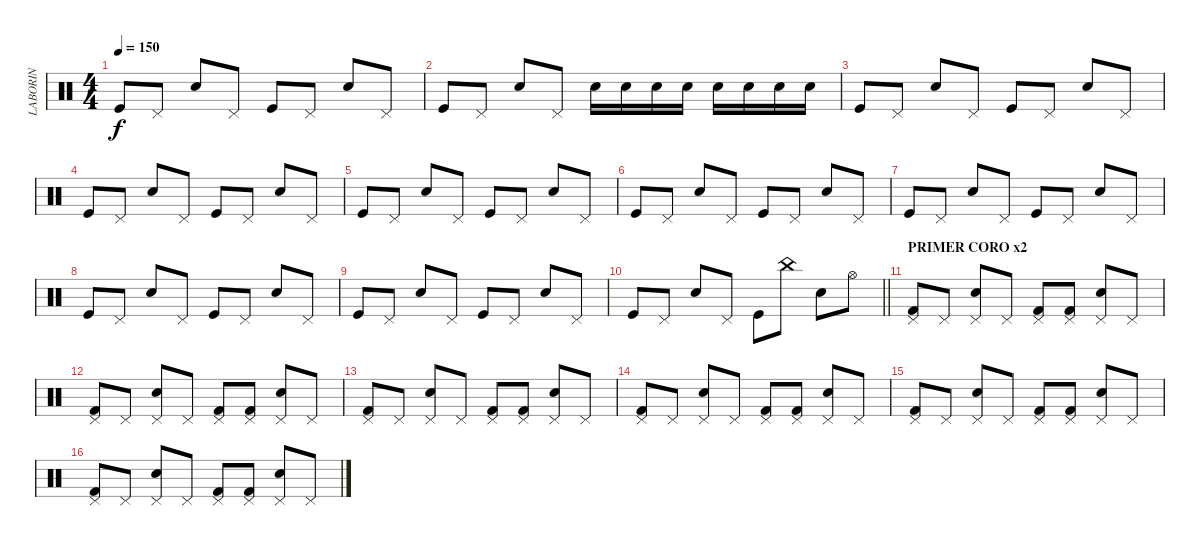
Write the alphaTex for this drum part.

\track ("LABORIN" "LABORIN") {instrument percussion}
\staff {score}
\articulation defaults
\ts (4 4)
\tempo 150
\clef neutral
\ks c "Kick (hit)".8{dy f} "Pedal Hi-Hat (hit)".8 "Snare (hit) 2".8 "Pedal Hi-Hat (hit)".8 "Kick (hit)".8 "Pedal Hi-Hat (hit)".8 "Snare (hit) 2".8 "Pedal Hi-Hat (hit)".8
|
"Kick (hit)".8 "Pedal Hi-Hat (hit)".8 "Snare (hit) 2".8 "Pedal Hi-Hat (hit)".8 "Snare (hit) 2".16 "Snare (hit) 2".16 "Snare (hit) 2".16 "Snare (hit) 2".16 "Snare (hit) 2".16 "Snare (hit) 2".16 "Snare (hit) 2".16 "Snare (hit) 2".16 |
"Kick (hit)".8 "Pedal Hi-Hat (hit)".8 "Snare (hit) 2".8 "Pedal Hi-Hat (hit)".8 "Kick (hit)".8 "Pedal Hi-Hat (hit)".8 "Snare (hit) 2".8 "Pedal Hi-Hat (hit)".8 |
"Kick (hit)".8 "Pedal Hi-Hat (hit)".8 "Snare (hit) 2".8 "Pedal Hi-Hat (hit)".8 "Kick (hit)".8 "Pedal Hi-Hat (hit)".8 "Snare (hit) 2".8 "Pedal Hi-Hat (hit)".8 |
"Kick (hit)".8 "Pedal Hi-Hat (hit)".8 "Snare (hit) 2".8 "Pedal Hi-Hat (hit)".8 "Kick (hit)".8 "Pedal Hi-Hat (hit)".8 "Snare (hit) 2".8 "Pedal Hi-Hat (hit)".8 |
"Kick (hit)".8 "Pedal Hi-Hat (hit)".8 "Snare (hit) 2".8 "Pedal Hi-Hat (hit)".8 "Kick (hit)".8 "Pedal Hi-Hat (hit)".8 "Snare (hit) 2".8 "Pedal Hi-Hat (hit)".8 |
"Kick (hit)".8 "Pedal Hi-Hat (hit)".8 "Snare (hit) 2".8 "Pedal Hi-Hat (hit)".8 "Kick (hit)".8 "Pedal Hi-Hat (hit)".8 "Snare (hit) 2".8 "Pedal Hi-Hat (hit)".8 |
"Kick (hit)".8 "Pedal Hi-Hat (hit)".8 "Snare (hit) 2".8 "Pedal Hi-Hat (hit)".8 "Kick (hit)".8 "Pedal Hi-Hat (hit)".8 "Snare (hit) 2".8 "Pedal Hi-Hat (hit)".8 |
"Kick (hit)".8 "Pedal Hi-Hat (hit)".8 "Snare (hit) 2".8 "Pedal Hi-Hat (hit)".8 "Kick (hit)".8 "Pedal Hi-Hat (hit)".8 "Snare (hit) 2".8 "Pedal Hi-Hat (hit)".8 |
\barLineRight lightlight "Kick (hit)".8 "Pedal Hi-Hat (hit)".8 "Snare (hit) 2".8 "Pedal Hi-Hat (hit)".8 "Kick (hit)".8 "China (hit)".8 "Snare (hit) 2".8 "Hi-Hat (open)".8
|
\section ("" "PRIMER CORO x2")
("Kick (hit) 2" "Pedal Hi-Hat (hit)").8 "Pedal Hi-Hat (hit)".8 ("Snare (hit) 2" "Pedal Hi-Hat (hit)").8 "Pedal Hi-Hat (hit)".8 ("Kick (hit) 2" "Pedal Hi-Hat (hit)").8 ("Kick (hit) 2" "Pedal Hi-Hat (hit)").8 ("Snare (hit) 2" "Pedal Hi-Hat (hit)").8 "Pedal Hi-Hat (hit)".8 |
("Kick (hit) 2" "Pedal Hi-Hat (hit)").8 "Pedal Hi-Hat (hit)".8 ("Snare (hit) 2" "Pedal Hi-Hat (hit)").8 "Pedal Hi-Hat (hit)".8 ("Kick (hit) 2" "Pedal Hi-Hat (hit)").8 ("Kick (hit) 2" "Pedal Hi-Hat (hit)").8 ("Snare (hit) 2" "Pedal Hi-Hat (hit)").8 "Pedal Hi-Hat (hit)".8 |
("Kick (hit) 2" "Pedal Hi-Hat (hit)").8 "Pedal Hi-Hat (hit)".8 ("Snare (hit) 2" "Pedal Hi-Hat (hit)").8 "Pedal Hi-Hat (hit)".8 ("Kick (hit) 2" "Pedal Hi-Hat (hit)").8 ("Kick (hit) 2" "Pedal Hi-Hat (hit)").8 ("Snare (hit) 2" "Pedal Hi-Hat (hit)").8 "Pedal Hi-Hat (hit)".8 |
("Kick (hit) 2" "Pedal Hi-Hat (hit)").8 "Pedal Hi-Hat (hit)".8 ("Snare (hit) 2" "Pedal Hi-Hat (hit)").8 "Pedal Hi-Hat (hit)".8 ("Kick (hit) 2" "Pedal Hi-Hat (hit)").8 ("Kick (hit) 2" "Pedal Hi-Hat (hit)").8 ("Snare (hit) 2" "Pedal Hi-Hat (hit)").8 "Pedal Hi-Hat (hit)".8 |
("Kick (hit) 2" "Pedal Hi-Hat (hit)").8 "Pedal Hi-Hat (hit)".8 ("Snare (hit) 2" "Pedal Hi-Hat (hit)").8 "Pedal Hi-Hat (hit)".8 ("Kick (hit) 2" "Pedal Hi-Hat (hit)").8 ("Kick (hit) 2" "Pedal Hi-Hat (hit)").8 ("Snare (hit) 2" "Pedal Hi-Hat (hit)").8 "Pedal Hi-Hat (hit)".8 |
("Kick (hit) 2" "Pedal Hi-Hat (hit)").8 "Pedal Hi-Hat (hit)".8 ("Snare (hit) 2" "Pedal Hi-Hat (hit)").8 "Pedal Hi-Hat (hit)".8 ("Kick (hit) 2" "Pedal Hi-Hat (hit)").8 ("Kick (hit) 2" "Pedal Hi-Hat (hit)").8 ("Snare (hit) 2" "Pedal Hi-Hat (hit)").8 "Pedal Hi-Hat (hit)".8
